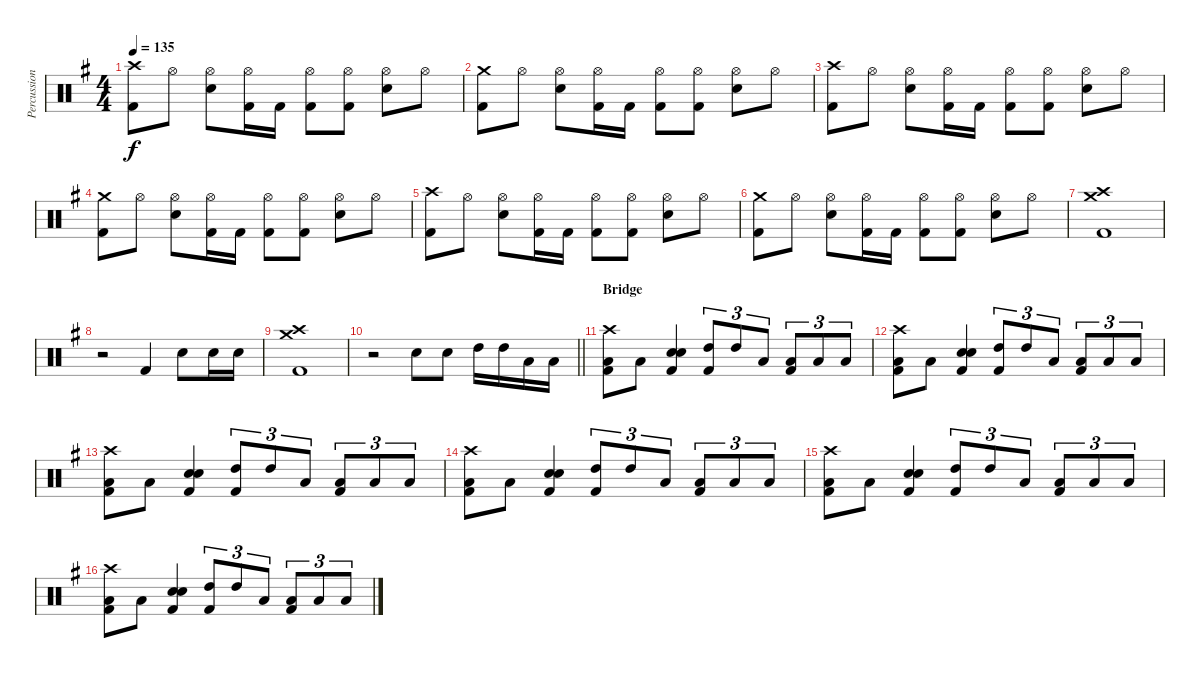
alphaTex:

\track ("Percussion" "Percussion") {instrument percussion}
\staff {score}
\articulation defaults
\ts (4 4)
\tempo 135
\clef neutral
\ks g
("Crash high (hit)" "Kick (hit) 2").8{dy f} "Hi-Hat (open)".8 ("Hi-Hat (open)" "Electric Snare (hit)").8 ("Hi-Hat (open)" "Kick (hit) 2").16 "Kick (hit) 2".16 ("Hi-Hat (open)" "Kick (hit) 2").8 ("Hi-Hat (open)" "Kick (hit) 2").8 ("Hi-Hat (open)" "Electric Snare (hit)").8 "Hi-Hat (open)".8 |
("Crash medium (hit)" "Kick (hit) 2").8 "Hi-Hat (open)".8 ("Hi-Hat (open)" "Electric Snare (hit)").8 ("Hi-Hat (open)" "Kick (hit) 2").16 "Kick (hit) 2".16 ("Hi-Hat (open)" "Kick (hit) 2").8 ("Hi-Hat (open)" "Kick (hit) 2").8 ("Hi-Hat (open)" "Electric Snare (hit)").8 "Hi-Hat (open)".8 |
("Crash high (hit)" "Kick (hit) 2").8 "Hi-Hat (open)".8 ("Hi-Hat (open)" "Electric Snare (hit)").8 ("Hi-Hat (open)" "Kick (hit) 2").16 "Kick (hit) 2".16 ("Hi-Hat (open)" "Kick (hit) 2").8 ("Hi-Hat (open)" "Kick (hit) 2").8 ("Hi-Hat (open)" "Electric Snare (hit)").8 "Hi-Hat (open)".8 |
("Crash medium (hit)" "Kick (hit) 2").8 "Hi-Hat (open)".8 ("Hi-Hat (open)" "Electric Snare (hit)").8 ("Hi-Hat (open)" "Kick (hit) 2").16 "Kick (hit) 2".16 ("Hi-Hat (open)" "Kick (hit) 2").8 ("Hi-Hat (open)" "Kick (hit) 2").8 ("Hi-Hat (open)" "Electric Snare (hit)").8 "Hi-Hat (open)".8 |
("Crash high (hit)" "Kick (hit) 2").8 "Hi-Hat (open)".8 ("Hi-Hat (open)" "Electric Snare (hit)").8 ("Hi-Hat (open)" "Kick (hit) 2").16 "Kick (hit) 2".16 ("Hi-Hat (open)" "Kick (hit) 2").8 ("Hi-Hat (open)" "Kick (hit) 2").8 ("Hi-Hat (open)" "Electric Snare (hit)").8 "Hi-Hat (open)".8 |
("Crash medium (hit)" "Kick (hit) 2").8 "Hi-Hat (open)".8 ("Hi-Hat (open)" "Electric Snare (hit)").8 ("Hi-Hat (open)" "Kick (hit) 2").16 "Kick (hit) 2".16 ("Hi-Hat (open)" "Kick (hit) 2").8 ("Hi-Hat (open)" "Kick (hit) 2").8 ("Hi-Hat (open)" "Electric Snare (hit)").8 "Hi-Hat (open)".8 |
("Crash high (hit)" "Crash medium (hit)" "Kick (hit) 2").1 |
r.2 "Kick (hit) 2".4 "Electric Snare (hit)".8 "Electric Snare (hit)".16 "Electric Snare (hit)".16 |
("Crash high (hit)" "Crash medium (hit)" "Kick (hit) 2").1 |
\barLineRight lightlight
r.2 "Electric Snare (hit)".8 "Electric Snare (hit)".8 "High Tom (hit)".16 "High Tom (hit)".16 "Low Tom (hit)".16 "Low Tom (hit)".16 |
\section ("" "Bridge")
("Crash high (hit)" "Low Tom (hit)" "Kick (hit) 2").8 "Low Tom (hit)".8 ("Electric Snare (hit)" "Electric Snare (hit)" "Kick (hit) 2").4 ("High Tom (hit)" "Kick (hit) 2").8{tu (3 2)} "High Tom (hit)".8{tu (3 2)} "Low Tom (hit)".8{tu (3 2)} ("Low Tom (hit)" "Kick (hit) 2").8{tu (3 2)} "Low Floor Tom (hit)".8{tu (3 2)} "Low Floor Tom (hit)".8{tu (3 2)} |
("Crash high (hit)" "Low Tom (hit)" "Kick (hit) 2").8 "Low Tom (hit)".8 ("Electric Snare (hit)" "Electric Snare (hit)" "Kick (hit) 2").4 ("High Tom (hit)" "Kick (hit) 2").8{tu (3 2)} "High Tom (hit)".8{tu (3 2)} "Low Tom (hit)".8{tu (3 2)} ("Low Tom (hit)" "Kick (hit) 2").8{tu (3 2)} "Low Floor Tom (hit)".8{tu (3 2)} "Low Floor Tom (hit)".8{tu (3 2)} |
("Crash high (hit)" "Low Tom (hit)" "Kick (hit) 2").8 "Low Tom (hit)".8 ("Electric Snare (hit)" "Electric Snare (hit)" "Kick (hit) 2").4 ("High Tom (hit)" "Kick (hit) 2").8{tu (3 2)} "High Tom (hit)".8{tu (3 2)} "Low Tom (hit)".8{tu (3 2)} ("Low Tom (hit)" "Kick (hit) 2").8{tu (3 2)} "Low Floor Tom (hit)".8{tu (3 2)} "Low Floor Tom (hit)".8{tu (3 2)} |
("Crash high (hit)" "Low Tom (hit)" "Kick (hit) 2").8 "Low Tom (hit)".8 ("Electric Snare (hit)" "Electric Snare (hit)" "Kick (hit) 2").4 ("High Tom (hit)" "Kick (hit) 2").8{tu (3 2)} "High Tom (hit)".8{tu (3 2)} "Low Tom (hit)".8{tu (3 2)} ("Low Tom (hit)" "Kick (hit) 2").8{tu (3 2)} "Low Floor Tom (hit)".8{tu (3 2)} "Low Floor Tom (hit)".8{tu (3 2)} |
("Crash high (hit)" "Low Tom (hit)" "Kick (hit) 2").8 "Low Tom (hit)".8 ("Electric Snare (hit)" "Electric Snare (hit)" "Kick (hit) 2").4 ("High Tom (hit)" "Kick (hit) 2").8{tu (3 2)} "High Tom (hit)".8{tu (3 2)} "Low Tom (hit)".8{tu (3 2)} ("Low Tom (hit)" "Kick (hit) 2").8{tu (3 2)} "Low Floor Tom (hit)".8{tu (3 2)} "Low Floor Tom (hit)".8{tu (3 2)} |
("Crash high (hit)" "Low Tom (hit)" "Kick (hit) 2").8 "Low Tom (hit)".8 ("Electric Snare (hit)" "Electric Snare (hit)" "Kick (hit) 2").4 ("High Tom (hit)" "Kick (hit) 2").8{tu (3 2)} "High Tom (hit)".8{tu (3 2)} "Low Tom (hit)".8{tu (3 2)} ("Low Tom (hit)" "Kick (hit) 2").8{tu (3 2)} "Low Floor Tom (hit)".8{tu (3 2)} "Low Floor Tom (hit)".8{tu (3 2)}
